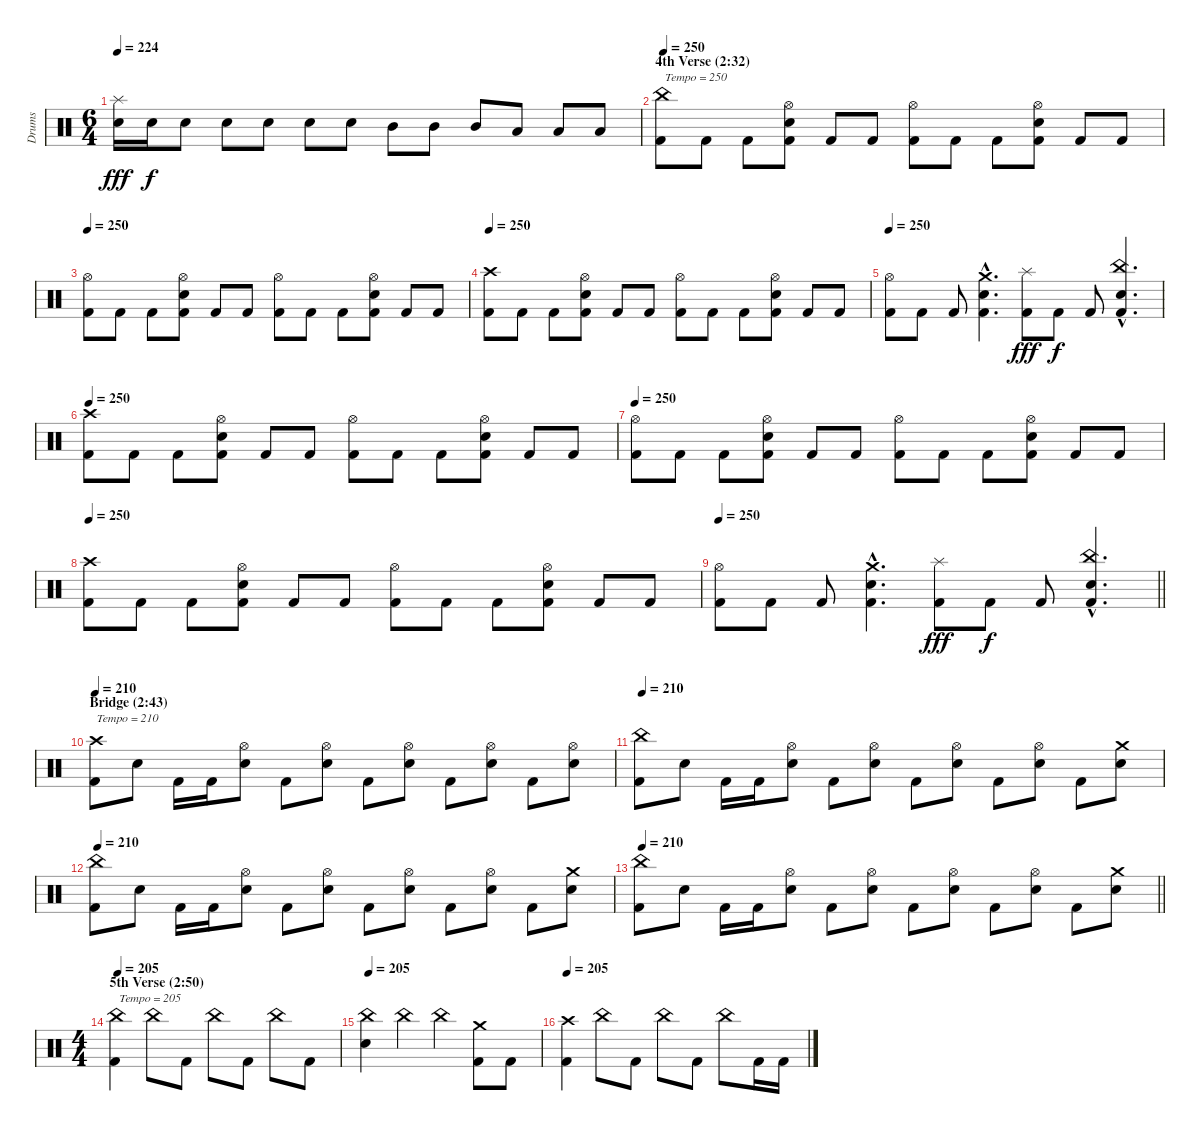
\track ("Drums" "Drums") {instrument percussion}
\staff {score}
\articulation defaults
\ts (6 4)
\tempo 224
\clef neutral
\ks c
("Splash (hit)" "Snare (hit) 2").16{dy fff} "Snare (hit) 2".16{dy f} "Snare (hit) 2".8 "Snare (hit) 2".8 "Snare (hit) 2".8 "Snare (hit) 2".8 "Snare (hit) 2".8 "Mid Tom (hit)".8 "Mid Tom (hit)".8 "Mid Tom (hit)".8 "Low Tom (hit)".8 "Low Tom (hit)".8 "Low Tom (hit)".8 |
\section ("" "4th Verse (2:32)")
\tempo 250
("China (hit)" "Kick (hit) 2").8{txt "Tempo = 250"} "Kick (hit) 2".8 "Kick (hit) 2".8 ("Hi-Hat (open)" "Snare (hit) 2" "Kick (hit) 2").8 "Kick (hit) 2".8 "Kick (hit) 2".8 ("Hi-Hat (open)" "Kick (hit) 2").8 "Kick (hit) 2".8 "Kick (hit) 2".8 ("Hi-Hat (open)" "Snare (hit) 2" "Kick (hit) 2").8 "Kick (hit) 2".8 "Kick (hit) 2".8 |
\tempo 250
("Hi-Hat (open)" "Kick (hit) 2").8 "Kick (hit) 2".8 "Kick (hit) 2".8 ("Hi-Hat (open)" "Snare (hit) 2" "Kick (hit) 2").8 "Kick (hit) 2".8 "Kick (hit) 2".8 ("Hi-Hat (open)" "Kick (hit) 2").8 "Kick (hit) 2".8 "Kick (hit) 2".8 ("Hi-Hat (open)" "Snare (hit) 2" "Kick (hit) 2").8 "Kick (hit) 2".8 "Kick (hit) 2".8 |
\tempo 250
("Crash high (hit)" "Kick (hit) 2").8 "Kick (hit) 2".8 "Kick (hit) 2".8 ("Hi-Hat (open)" "Snare (hit) 2" "Kick (hit) 2").8 "Kick (hit) 2".8 "Kick (hit) 2".8 ("Hi-Hat (open)" "Kick (hit) 2").8 "Kick (hit) 2".8 "Kick (hit) 2".8 ("Hi-Hat (open)" "Snare (hit) 2" "Kick (hit) 2").8 "Kick (hit) 2".8 "Kick (hit) 2".8 |
\tempo 250
("Hi-Hat (open)" "Kick (hit) 2").8 "Kick (hit) 2".8 "Kick (hit) 2".8 ("Crash medium (hit)"{hac} "Snare (hit) 2"{hac} "Kick (hit) 2"{hac}).4{d} ("Splash (hit)" "Kick (hit) 2").8{dy fff} "Kick (hit) 2".8{dy f} "Kick (hit) 2".8 ("China (hit)"{hac} "Snare (hit) 2"{hac} "Kick (hit) 2"{hac}).4{d} |
\tempo 250
("Crash high (hit)" "Kick (hit) 2").8 "Kick (hit) 2".8 "Kick (hit) 2".8 ("Hi-Hat (open)" "Snare (hit) 2" "Kick (hit) 2").8 "Kick (hit) 2".8 "Kick (hit) 2".8 ("Hi-Hat (open)" "Kick (hit) 2").8 "Kick (hit) 2".8 "Kick (hit) 2".8 ("Hi-Hat (open)" "Snare (hit) 2" "Kick (hit) 2").8 "Kick (hit) 2".8 "Kick (hit) 2".8 |
\tempo 250
("Hi-Hat (open)" "Kick (hit) 2").8 "Kick (hit) 2".8 "Kick (hit) 2".8 ("Hi-Hat (open)" "Snare (hit) 2" "Kick (hit) 2").8 "Kick (hit) 2".8 "Kick (hit) 2".8 ("Hi-Hat (open)" "Kick (hit) 2").8 "Kick (hit) 2".8 "Kick (hit) 2".8 ("Hi-Hat (open)" "Snare (hit) 2" "Kick (hit) 2").8 "Kick (hit) 2".8 "Kick (hit) 2".8 |
\tempo 250
("Crash high (hit)" "Kick (hit) 2").8 "Kick (hit) 2".8 "Kick (hit) 2".8 ("Hi-Hat (open)" "Snare (hit) 2" "Kick (hit) 2").8 "Kick (hit) 2".8 "Kick (hit) 2".8 ("Hi-Hat (open)" "Kick (hit) 2").8 "Kick (hit) 2".8 "Kick (hit) 2".8 ("Hi-Hat (open)" "Snare (hit) 2" "Kick (hit) 2").8 "Kick (hit) 2".8 "Kick (hit) 2".8 |
\tempo 250
\barLineRight lightlight
("Hi-Hat (open)" "Kick (hit) 2").8 "Kick (hit) 2".8 "Kick (hit) 2".8 ("Crash medium (hit)"{hac} "Snare (hit) 2"{hac} "Kick (hit) 2"{hac}).4{d} ("Splash (hit)" "Kick (hit) 2").8{dy fff} "Kick (hit) 2".8{dy f} "Kick (hit) 2".8 ("China (hit)"{hac} "Snare (hit) 2"{hac} "Kick (hit) 2"{hac}).4{d} |
\section ("" "Bridge (2:43)")
\tempo 210
("Crash high (hit)" "Kick (hit) 2").8{txt "Tempo = 210"} "Snare (hit) 2".8 "Kick (hit) 2".16 "Kick (hit) 2".16 ("Hi-Hat (open)" "Snare (hit) 2").8 "Kick (hit) 2".8 ("Hi-Hat (open)" "Snare (hit) 2").8 "Kick (hit) 2".8 ("Hi-Hat (open)" "Snare (hit) 2").8 "Kick (hit) 2".8 ("Hi-Hat (open)" "Snare (hit) 2").8 "Kick (hit) 2".8 ("Hi-Hat (open)" "Snare (hit) 2").8 |
\tempo 210
("China (hit)" "Kick (hit) 2").8 "Snare (hit) 2".8 "Kick (hit) 2".16 "Kick (hit) 2".16 ("Hi-Hat (open)" "Snare (hit) 2").8 "Kick (hit) 2".8 ("Hi-Hat (open)" "Snare (hit) 2").8 "Kick (hit) 2".8 ("Hi-Hat (open)" "Snare (hit) 2").8 "Kick (hit) 2".8 ("Hi-Hat (open)" "Snare (hit) 2").8 "Kick (hit) 2".8 ("Crash medium (hit)" "Snare (hit) 2").8 |
\tempo 210
("China (hit)" "Kick (hit) 2").8 "Snare (hit) 2".8 "Kick (hit) 2".16 "Kick (hit) 2".16 ("Hi-Hat (open)" "Snare (hit) 2").8 "Kick (hit) 2".8 ("Hi-Hat (open)" "Snare (hit) 2").8 "Kick (hit) 2".8 ("Hi-Hat (open)" "Snare (hit) 2").8 "Kick (hit) 2".8 ("Hi-Hat (open)" "Snare (hit) 2").8 "Kick (hit) 2".8 ("Crash medium (hit)" "Snare (hit) 2").8 |
\tempo 210
\barLineRight lightlight
("China (hit)" "Kick (hit) 2").8 "Snare (hit) 2".8 "Kick (hit) 2".16 "Kick (hit) 2".16 ("Hi-Hat (open)" "Snare (hit) 2").8 "Kick (hit) 2".8 ("Hi-Hat (open)" "Snare (hit) 2").8 "Kick (hit) 2".8 ("Hi-Hat (open)" "Snare (hit) 2").8 "Kick (hit) 2".8 ("Hi-Hat (open)" "Snare (hit) 2").8 "Kick (hit) 2".8 ("Crash medium (hit)" "Snare (hit) 2").8 |
\ts (4 4)
\section ("" "5th Verse (2:50)")
\tempo 205
("China (hit)" "Kick (hit) 2").4{txt "Tempo = 205"} "China (hit)".8 "Kick (hit) 2".8 "China (hit)".8 "Kick (hit) 2".8 "China (hit)".8 "Kick (hit) 2".8 |
\tempo 205
("China (hit)" "Snare (hit) 2").4 "China (hit)".4 "China (hit)".4 ("Crash medium (hit)" "Kick (hit) 2").8 "Kick (hit) 2".8 |
\tempo 205
("Crash high (hit)" "Kick (hit) 2").4 "China (hit)".8 "Kick (hit) 2".8 "China (hit)".8 "Kick (hit) 2".8 "China (hit)".8 "Kick (hit) 2".16 "Kick (hit) 2".16
